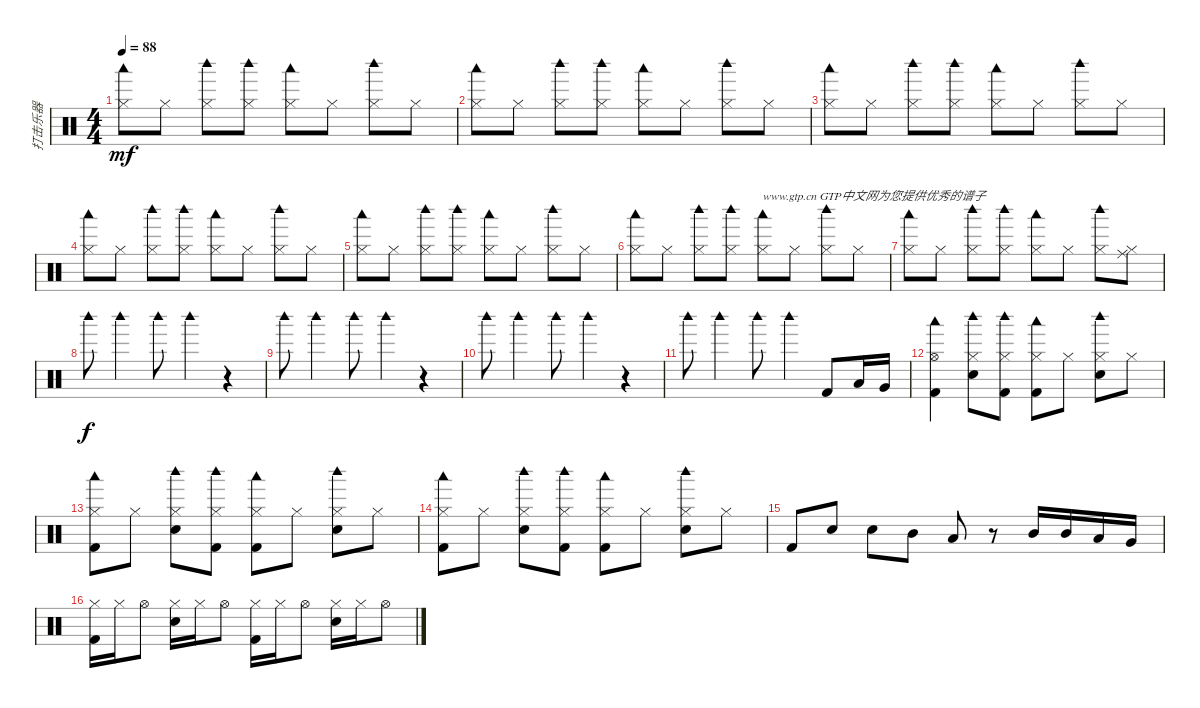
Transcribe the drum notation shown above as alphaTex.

\track ("打击乐器" "打击乐器") {instrument percussion}
\staff {score}
\articulation defaults
\ts (4 4)
\tempo 88
\clef neutral
\ks c
("Hi-Hat (closed)" "Woodblock low (hit)").8{dy mf} "Hi-Hat (closed)".8 ("Hi-Hat (closed)" "Woodblock high (hit)").8 ("Hi-Hat (closed)" "Woodblock high (hit)").8 ("Hi-Hat (closed)" "Woodblock low (hit)").8 "Hi-Hat (closed)".8 ("Hi-Hat (closed)" "Woodblock high (hit)").8 "Hi-Hat (closed)".8 |
("Hi-Hat (closed)" "Woodblock low (hit)").8 "Hi-Hat (closed)".8 ("Hi-Hat (closed)" "Woodblock high (hit)").8 ("Hi-Hat (closed)" "Woodblock high (hit)").8 ("Hi-Hat (closed)" "Woodblock low (hit)").8 "Hi-Hat (closed)".8 ("Hi-Hat (closed)" "Woodblock high (hit)").8 "Hi-Hat (closed)".8 |
("Hi-Hat (closed)" "Woodblock low (hit)").8 "Hi-Hat (closed)".8 ("Hi-Hat (closed)" "Woodblock high (hit)").8 ("Hi-Hat (closed)" "Woodblock high (hit)").8 ("Hi-Hat (closed)" "Woodblock low (hit)").8 "Hi-Hat (closed)".8 ("Hi-Hat (closed)" "Woodblock high (hit)").8 "Hi-Hat (closed)".8 |
("Hi-Hat (closed)" "Woodblock low (hit)").8 "Hi-Hat (closed)".8 ("Hi-Hat (closed)" "Woodblock high (hit)").8 ("Hi-Hat (closed)" "Woodblock high (hit)").8 ("Hi-Hat (closed)" "Woodblock low (hit)").8 "Hi-Hat (closed)".8 ("Hi-Hat (closed)" "Woodblock high (hit)").8 "Hi-Hat (closed)".8 |
("Hi-Hat (closed)" "Woodblock low (hit)").8 "Hi-Hat (closed)".8 ("Hi-Hat (closed)" "Woodblock high (hit)").8 ("Hi-Hat (closed)" "Woodblock high (hit)").8 ("Hi-Hat (closed)" "Woodblock low (hit)").8 "Hi-Hat (closed)".8 ("Hi-Hat (closed)" "Woodblock high (hit)").8 "Hi-Hat (closed)".8 |
("Hi-Hat (closed)" "Woodblock low (hit)").8 "Hi-Hat (closed)".8 ("Hi-Hat (closed)" "Woodblock high (hit)").8 ("Hi-Hat (closed)" "Woodblock high (hit)").8 ("Hi-Hat (closed)" "Woodblock low (hit)").8{txt "www.gtp.cn GTP中文网为您提供优秀的谱子"} "Hi-Hat (closed)".8 ("Hi-Hat (closed)" "Woodblock high (hit)").8 "Hi-Hat (closed)".8 |
("Hi-Hat (closed)" "Woodblock low (hit)").8 "Hi-Hat (closed)".8 ("Hi-Hat (closed)" "Woodblock high (hit)").8 ("Hi-Hat (closed)" "Woodblock high (hit)").8 ("Hi-Hat (closed)" "Woodblock low (hit)").8 "Hi-Hat (closed)".8 ("Hi-Hat (closed)" "Woodblock high (hit)").8 ("Hi-Hat (closed)" "Ride (middle)").8 |
"Woodblock high (hit)".8{dy f} "Woodblock high (hit)".4 "Woodblock high (hit)".8 "Woodblock high (hit)".4 r.4 |
"Woodblock high (hit)".8 "Woodblock high (hit)".4 "Woodblock high (hit)".8 "Woodblock high (hit)".4 r.4 |
"Woodblock high (hit)".8 "Woodblock high (hit)".4 "Woodblock high (hit)".8 "Woodblock high (hit)".4 r.4 |
"Woodblock high (hit)".8 "Woodblock high (hit)".4 "Woodblock high (hit)".8 "Woodblock high (hit)".4 "Kick (hit) 2".8 "Low Tom (hit)".16 "Very Low Tom (hit)".16 |
("Hi-Hat (open)" "Woodblock low (hit)" "Kick (hit) 2").4 ("Hi-Hat (closed)" "Woodblock high (hit)" "Snare (hit) 2").8 ("Hi-Hat (closed)" "Woodblock high (hit)" "Kick (hit) 2").8 ("Hi-Hat (closed)" "Woodblock low (hit)" "Kick (hit) 2").8 "Hi-Hat (closed)".8 ("Hi-Hat (closed)" "Woodblock high (hit)" "Snare (hit) 2").8 "Hi-Hat (closed)".8 |
("Hi-Hat (closed)" "Woodblock low (hit)" "Kick (hit) 2").8 "Hi-Hat (closed)".8 ("Hi-Hat (closed)" "Woodblock high (hit)" "Snare (hit) 2").8 ("Hi-Hat (closed)" "Woodblock high (hit)" "Kick (hit) 2").8 ("Hi-Hat (closed)" "Woodblock low (hit)" "Kick (hit) 2").8 "Hi-Hat (closed)".8 ("Hi-Hat (closed)" "Woodblock high (hit)" "Snare (hit) 2").8 "Hi-Hat (closed)".8 |
("Hi-Hat (closed)" "Woodblock low (hit)" "Kick (hit) 2").8 "Hi-Hat (closed)".8 ("Hi-Hat (closed)" "Woodblock high (hit)" "Snare (hit) 2").8 ("Hi-Hat (closed)" "Woodblock high (hit)" "Kick (hit) 2").8 ("Hi-Hat (closed)" "Woodblock low (hit)" "Kick (hit) 2").8 "Hi-Hat (closed)".8 ("Hi-Hat (closed)" "Woodblock high (hit)" "Snare (hit) 2").8 "Hi-Hat (closed)".8 |
"Kick (hit) 2".8 "Snare (hit) 2".8 "Snare (hit) 2".8 "Mid Tom (hit)".8 "Low Tom (hit)".8 r.8 "Mid Tom (hit)".16 "Mid Tom (hit)".16 "Low Tom (hit)".16 "Very Low Tom (hit)".16 |
("Hi-Hat (closed)" "Kick (hit) 2").16 "Hi-Hat (closed)".16 "Hi-Hat (open)".8 ("Hi-Hat (closed)" "Snare (hit) 2").16 "Hi-Hat (closed)".16 "Hi-Hat (open)".8 ("Hi-Hat (closed)" "Kick (hit) 2").16 "Hi-Hat (closed)".16 "Hi-Hat (open)".8 ("Hi-Hat (closed)" "Snare (hit) 2").16 "Hi-Hat (closed)".16 "Hi-Hat (open)".8
